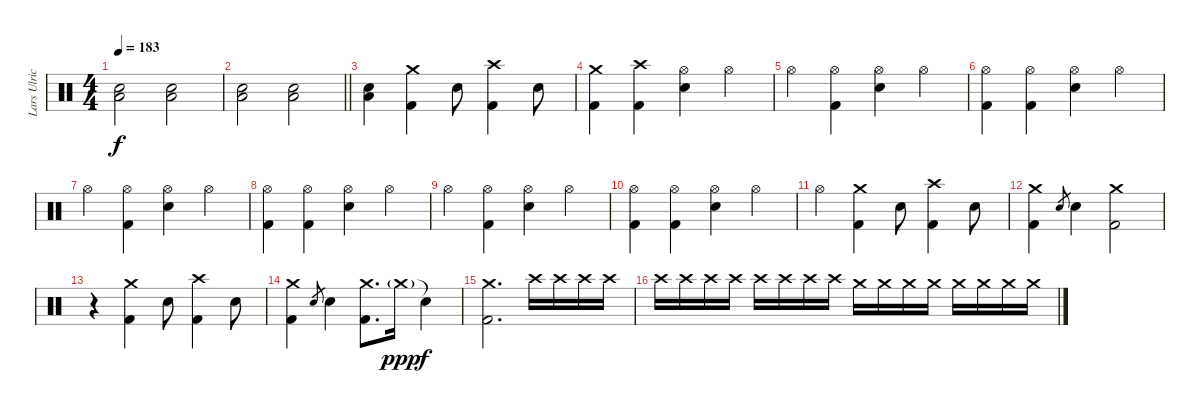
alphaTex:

\track ("Lars Ulrich" "Lars Ulric") {instrument percussion}
\staff {score}
\articulation defaults
\ts (4 4)
\tempo 183
\clef neutral
\ks c
("Snare (hit) 2" "Low Floor Tom (hit)").2{dy f} ("Snare (hit) 2" "Low Floor Tom (hit)").2 |
\barLineRight lightlight
("Snare (hit) 2" "Low Floor Tom (hit)").2 ("Snare (hit) 2" "Low Floor Tom (hit)").2 |
\section ("" "")
("Snare (hit) 2" "Low Floor Tom (hit)").4 ("Crash medium (hit)" "Kick (hit) 2").4 "Snare (hit) 2".8 ("Crash high (hit)" "Kick (hit) 2").4 "Snare (hit) 2".8 |
("Crash medium (hit)" "Kick (hit) 2").4 ("Crash high (hit)" "Kick (hit) 2").4 ("Hi-Hat (open)" "Snare (hit) 2").4 "Hi-Hat (open)".4 |
"Hi-Hat (open)".4 ("Hi-Hat (open)" "Kick (hit) 2").4 ("Hi-Hat (open)" "Snare (hit) 2").4 "Hi-Hat (open)".4 |
("Hi-Hat (open)" "Kick (hit) 2").4 ("Hi-Hat (open)" "Kick (hit) 2").4 ("Hi-Hat (open)" "Snare (hit) 2").4 "Hi-Hat (open)".4 |
"Hi-Hat (open)".4 ("Hi-Hat (open)" "Kick (hit) 2").4 ("Hi-Hat (open)" "Snare (hit) 2").4 "Hi-Hat (open)".4 |
("Hi-Hat (open)" "Kick (hit) 2").4 ("Hi-Hat (open)" "Kick (hit) 2").4 ("Hi-Hat (open)" "Snare (hit) 2").4 "Hi-Hat (open)".4 |
"Hi-Hat (open)".4 ("Hi-Hat (open)" "Kick (hit) 2").4 ("Hi-Hat (open)" "Snare (hit) 2").4 "Hi-Hat (open)".4 |
("Hi-Hat (open)" "Kick (hit) 2").4 ("Hi-Hat (open)" "Kick (hit) 2").4 ("Hi-Hat (open)" "Snare (hit) 2").4 "Hi-Hat (open)".4 |
"Hi-Hat (open)".4 ("Crash medium (hit)" "Kick (hit) 2").4 "Snare (hit) 2".8 ("Crash high (hit)" "Kick (hit) 2").4 "Snare (hit) 2".8 |
("Crash medium (hit)" "Kick (hit) 2").4 "Snare (hit) 2".8{gr} "Snare (hit) 2".4 ("Crash medium (hit)" "Kick (hit) 2").2 |
r.4 ("Crash medium (hit)" "Kick (hit) 2").4 "Snare (hit) 2".8 ("Crash high (hit)" "Kick (hit) 2").4 "Snare (hit) 2".8 |
("Crash medium (hit)" "Kick (hit) 2").4 "Snare (hit) 2".8{gr} "Snare (hit) 2".4 ("Crash medium (hit)" "Kick (hit) 2").8{d} "Crash medium (hit)"{g}.16{dy ppp} "Snare (hit)"{t}.4{dy f} |
("Crash medium (hit)" "Kick (hit) 2").2{d} "Crash high (hit)".16 "Crash high (hit)".16 "Crash high (hit)".16 "Crash high (hit)".16 |
"Crash high (hit)".16 "Crash high (hit)".16 "Crash high (hit)".16 "Crash high (hit)".16 "Crash high (hit)".16 "Crash high (hit)".16 "Crash high (hit)".16 "Crash high (hit)".16 "Crash medium (hit)".16 "Crash medium (hit)".16 "Crash medium (hit)".16 "Crash medium (hit)".16 "Crash medium (hit)".16 "Crash medium (hit)".16 "Crash medium (hit)".16 "Crash medium (hit)".16
